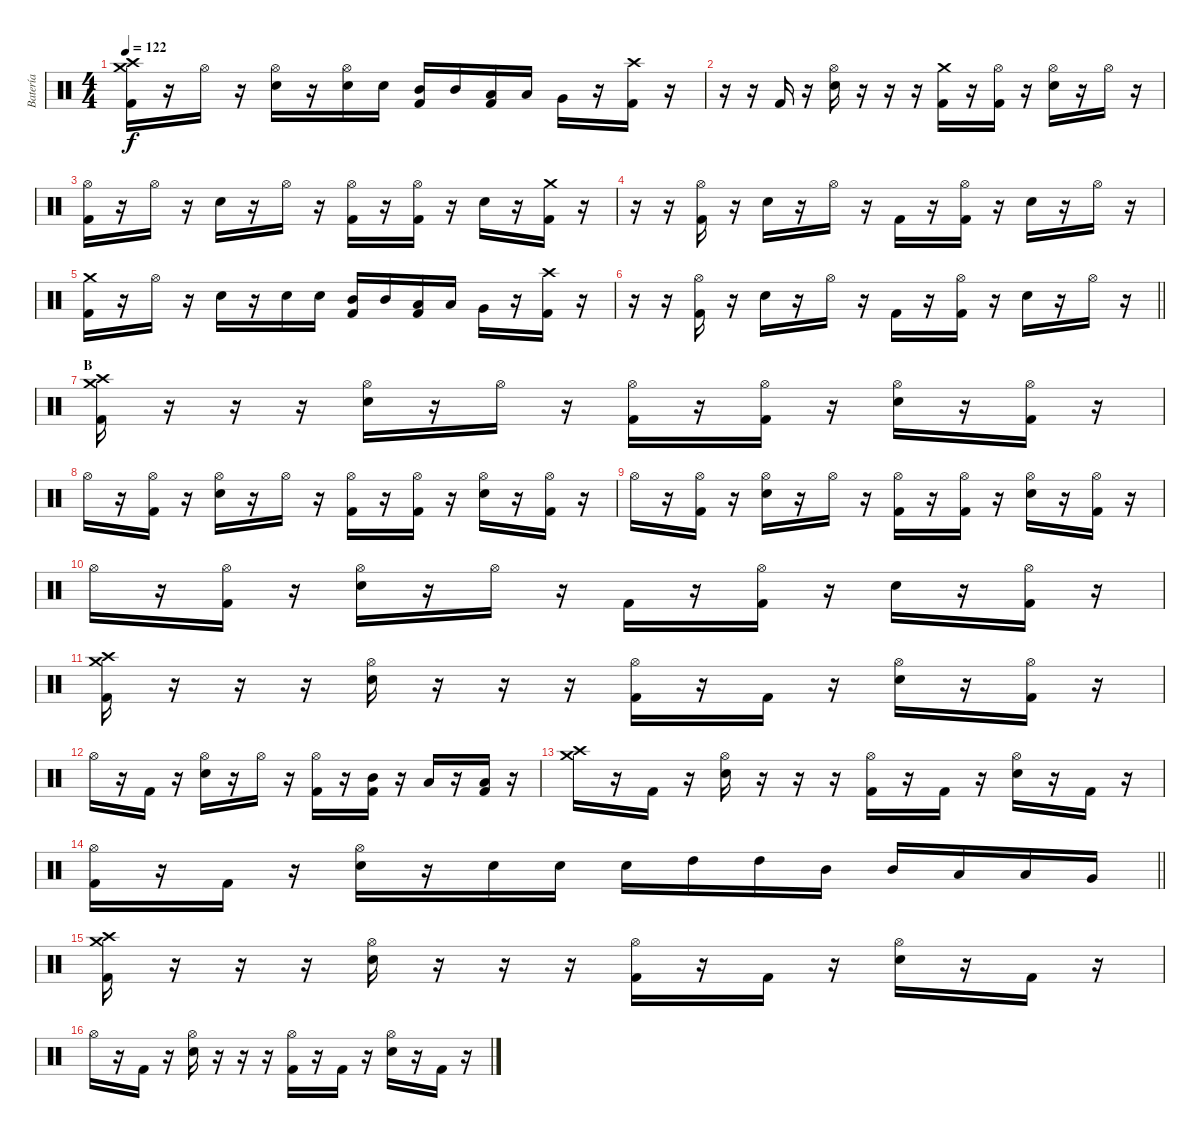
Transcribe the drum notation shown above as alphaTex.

\track ("Batería" "Batería") {instrument percussion}
\staff {score}
\articulation defaults
\ts (4 4)
\tempo 122
\clef neutral
\ks c
("Crash high (hit)" "Kick (hit) 2" "Crash medium (hit)").16{dy f} r.16 "Hi-Hat (open)".16 r.16 ("Electric Snare (hit)" "Hi-Hat (open)").16 r.16 ("Electric Snare (hit)" "Hi-Hat (open)").16 "Electric Snare (hit)".16 ("Mid Tom (hit)" "Kick (hit) 2").16 "Mid Tom (hit)".16 ("Low Tom (hit)" "Kick (hit) 2").16 "Low Tom (hit)".16 "Very Low Tom (hit)".16 r.16 ("Kick (hit) 2" "Crash high (hit)").16 r.16 |
r.16 r.16 "Kick (hit) 2".16 r.16 ("Electric Snare (hit)" "Hi-Hat (open)").16 r.16 r.16 r.16 ("Kick (hit) 2" "Crash medium (hit)").16 r.16 ("Kick (hit) 2" "Hi-Hat (open)").16 r.16 ("Electric Snare (hit)" "Hi-Hat (open)").16 r.16 "Hi-Hat (open)".16 r.16 |
("Kick (hit) 2" "Hi-Hat (open)").16 r.16 "Hi-Hat (open)".16 r.16 "Electric Snare (hit)".16 r.16 "Hi-Hat (open)".16 r.16 ("Kick (hit) 2" "Hi-Hat (open)").16 r.16 ("Kick (hit) 2" "Hi-Hat (open)").16 r.16 "Electric Snare (hit)".16 r.16 ("Kick (hit) 2" "Crash medium (hit)").16 r.16 |
r.16 r.16 ("Kick (hit) 2" "Hi-Hat (open)").16 r.16 "Electric Snare (hit)".16 r.16 "Hi-Hat (open)".16 r.16 "Kick (hit) 2".16 r.16 ("Kick (hit) 2" "Hi-Hat (open)").16 r.16 "Electric Snare (hit)".16 r.16 "Hi-Hat (open)".16 r.16 |
("Kick (hit) 2" "Crash medium (hit)").16 r.16 "Hi-Hat (open)".16 r.16 "Electric Snare (hit)".16 r.16 "Electric Snare (hit)".16 "Electric Snare (hit)".16 ("Mid Tom (hit)" "Kick (hit) 2").16 "Mid Tom (hit)".16 ("Low Tom (hit)" "Kick (hit) 2").16 "Low Tom (hit)".16 "Very Low Tom (hit)".16 r.16 ("Kick (hit) 2" "Crash high (hit)").16 r.16 |
\barLineRight lightlight
r.16 r.16 ("Kick (hit) 2" "Hi-Hat (open)").16 r.16 "Electric Snare (hit)".16 r.16 "Hi-Hat (open)".16 r.16 "Kick (hit) 2".16 r.16 ("Kick (hit) 2" "Hi-Hat (open)").16 r.16 "Electric Snare (hit)".16 r.16 "Hi-Hat (open)".16 r.16 |
\section ("" "B")
("Crash medium (hit)" "Kick (hit) 2" "Crash high (hit)").16 r.16 r.16 r.16 ("Electric Snare (hit)" "Hi-Hat (open)").16 r.16 "Hi-Hat (open)".16 r.16 ("Kick (hit) 2" "Hi-Hat (open)").16 r.16 ("Kick (hit) 2" "Hi-Hat (open)").16 r.16 ("Electric Snare (hit)" "Hi-Hat (open)").16 r.16 ("Kick (hit) 2" "Hi-Hat (open)").16 r.16 |
"Hi-Hat (open)".16 r.16 ("Kick (hit) 2" "Hi-Hat (open)").16 r.16 ("Electric Snare (hit)" "Hi-Hat (open)").16 r.16 "Hi-Hat (open)".16 r.16 ("Kick (hit) 2" "Hi-Hat (open)").16 r.16 ("Kick (hit) 2" "Hi-Hat (open)").16 r.16 ("Electric Snare (hit)" "Hi-Hat (open)").16 r.16 ("Kick (hit) 2" "Hi-Hat (open)").16 r.16 |
"Hi-Hat (open)".16 r.16 ("Kick (hit) 2" "Hi-Hat (open)").16 r.16 ("Electric Snare (hit)" "Hi-Hat (open)").16 r.16 "Hi-Hat (open)".16 r.16 ("Kick (hit) 2" "Hi-Hat (open)").16 r.16 ("Kick (hit) 2" "Hi-Hat (open)").16 r.16 ("Electric Snare (hit)" "Hi-Hat (open)").16 r.16 ("Kick (hit) 2" "Hi-Hat (open)").16 r.16 |
"Hi-Hat (open)".16 r.16 ("Kick (hit) 2" "Hi-Hat (open)").16 r.16 ("Electric Snare (hit)" "Hi-Hat (open)").16 r.16 "Hi-Hat (open)".16 r.16 "Kick (hit) 2".16 r.16 ("Kick (hit) 2" "Hi-Hat (open)").16 r.16 "Electric Snare (hit)".16 r.16 ("Kick (hit) 2" "Hi-Hat (open)").16 r.16 |
("Crash high (hit)" "Kick (hit) 2" "Crash medium (hit)").16 r.16 r.16 r.16 ("Electric Snare (hit)" "Hi-Hat (open)").16 r.16 r.16 r.16 ("Kick (hit) 2" "Hi-Hat (open)").16 r.16 "Kick (hit) 2".16 r.16 ("Electric Snare (hit)" "Hi-Hat (open)").16 r.16 ("Kick (hit) 2" "Hi-Hat (open)").16 r.16 |
"Hi-Hat (open)".16 r.16 "Kick (hit) 2".16 r.16 ("Electric Snare (hit)" "Hi-Hat (open)").16 r.16 "Hi-Hat (open)".16 r.16 ("Kick (hit) 2" "Hi-Hat (open)").16 r.16 ("Mid Tom (hit)" "Kick (hit) 2").16 r.16 "Low Tom (hit)".16 r.16 ("Low Tom (hit)" "Kick (hit) 2").16 r.16 |
("Crash medium (hit)" "Crash high (hit)").16 r.16 "Kick (hit) 2".16 r.16 ("Electric Snare (hit)" "Hi-Hat (open)").16 r.16 r.16 r.16 ("Kick (hit) 2" "Hi-Hat (open)").16 r.16 "Kick (hit) 2".16 r.16 ("Electric Snare (hit)" "Hi-Hat (open)").16 r.16 "Kick (hit) 2".16 r.16 |
\barLineRight lightlight
("Kick (hit) 2" "Hi-Hat (open)").16 r.16 "Kick (hit) 2".16 r.16 ("Electric Snare (hit)" "Hi-Hat (open)").16 r.16 "Electric Snare (hit)".16 "Electric Snare (hit)".16 "Electric Snare (hit)".16 "High Tom (hit)".16 "High Tom (hit)".16 "Mid Tom (hit)".16 "Mid Tom (hit)".16 "Low Tom (hit)".16 "Low Tom (hit)".16 "Very Low Tom (hit)".16 |
("Crash high (hit)" "Kick (hit) 2" "Crash medium (hit)").16 r.16 r.16 r.16 ("Electric Snare (hit)" "Hi-Hat (open)").16 r.16 r.16 r.16 ("Kick (hit) 2" "Hi-Hat (open)").16 r.16 "Kick (hit) 2".16 r.16 ("Electric Snare (hit)" "Hi-Hat (open)").16 r.16 "Kick (hit) 2".16 r.16 |
"Hi-Hat (open)".16 r.16 "Kick (hit) 2".16 r.16 ("Electric Snare (hit)" "Hi-Hat (open)").16 r.16 r.16 r.16 ("Kick (hit) 2" "Hi-Hat (open)").16 r.16 "Kick (hit) 2".16 r.16 ("Electric Snare (hit)" "Hi-Hat (open)").16 r.16 "Kick (hit) 2".16 r.16
